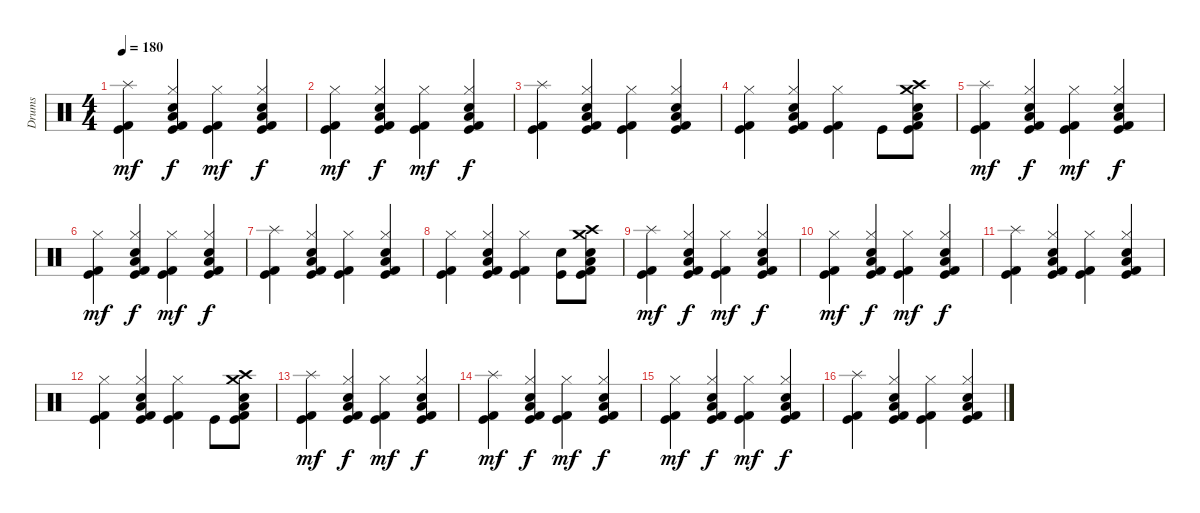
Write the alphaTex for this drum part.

\track ("Drums" "Drums") {instrument percussion}
\staff {score}
\articulation defaults
\ts (4 4)
\tempo 180
\clef neutral
\ks c
("Splash (hit)" "Kick (hit) 2" "Kick (hit)").4{dy mf} ("Hi-Hat (closed)" "Electric Snare (hit)" "Low Tom (hit)" "Kick (hit) 2" "Kick (hit)").4{dy f} ("Hi-Hat (closed)" "Kick (hit) 2" "Kick (hit)").4{dy mf} ("Hi-Hat (closed)" "Electric Snare (hit)" "Low Tom (hit)" "Kick (hit) 2" "Kick (hit)").4{dy f} |
("Hi-Hat (closed)" "Kick (hit) 2" "Kick (hit)").4{dy mf} ("Hi-Hat (closed)" "Electric Snare (hit)" "Low Tom (hit)" "Kick (hit) 2" "Kick (hit)").4{dy f} ("Hi-Hat (closed)" "Kick (hit) 2" "Kick (hit)").4{dy mf} ("Hi-Hat (closed)" "Electric Snare (hit)" "Low Tom (hit)" "Kick (hit) 2" "Kick (hit)").4{dy f} |
("Splash (hit)" "Kick (hit) 2" "Kick (hit)").4 ("Hi-Hat (closed)" "Electric Snare (hit)" "Low Tom (hit)" "Kick (hit) 2" "Kick (hit)").4 ("Hi-Hat (closed)" "Kick (hit) 2" "Kick (hit)").4 ("Hi-Hat (closed)" "Electric Snare (hit)" "Low Tom (hit)" "Kick (hit) 2" "Kick (hit)").4 |
("Hi-Hat (closed)" "Kick (hit) 2" "Kick (hit)").4 ("Hi-Hat (closed)" "Electric Snare (hit)" "Low Tom (hit)" "Kick (hit) 2" "Kick (hit)").4 ("Hi-Hat (closed)" "Kick (hit) 2" "Kick (hit)").4 "Kick (hit)".8 ("Crash high (hit)" "Electric Snare (hit)" "Low Tom (hit)" "Crash medium (hit)" "Kick (hit) 2" "Kick (hit)").8 |
("Splash (hit)" "Kick (hit) 2" "Kick (hit)").4{dy mf} ("Hi-Hat (closed)" "Electric Snare (hit)" "Low Tom (hit)" "Kick (hit) 2" "Kick (hit)").4{dy f} ("Hi-Hat (closed)" "Kick (hit) 2" "Kick (hit)").4{dy mf} ("Hi-Hat (closed)" "Electric Snare (hit)" "Low Tom (hit)" "Kick (hit) 2" "Kick (hit)").4{dy f} |
("Hi-Hat (closed)" "Kick (hit) 2" "Kick (hit)").4{dy mf} ("Hi-Hat (closed)" "Electric Snare (hit)" "Low Tom (hit)" "Kick (hit) 2" "Kick (hit)").4{dy f} ("Hi-Hat (closed)" "Kick (hit) 2" "Kick (hit)").4{dy mf} ("Hi-Hat (closed)" "Electric Snare (hit)" "Low Tom (hit)" "Kick (hit) 2" "Kick (hit)").4{dy f} |
("Splash (hit)" "Kick (hit) 2" "Kick (hit)").4 ("Hi-Hat (closed)" "Electric Snare (hit)" "Low Tom (hit)" "Kick (hit) 2" "Kick (hit)").4 ("Hi-Hat (closed)" "Kick (hit) 2" "Kick (hit)").4 ("Hi-Hat (closed)" "Electric Snare (hit)" "Low Tom (hit)" "Kick (hit) 2" "Kick (hit)").4 |
("Hi-Hat (closed)" "Kick (hit) 2" "Kick (hit)").4 ("Hi-Hat (closed)" "Electric Snare (hit)" "Low Tom (hit)" "Kick (hit) 2" "Kick (hit)").4 ("Hi-Hat (closed)" "Kick (hit) 2" "Kick (hit)").4 ("Electric Snare (hit)" "Kick (hit)").8 ("Crash high (hit)" "Electric Snare (hit)" "Low Tom (hit)" "Crash medium (hit)" "Kick (hit) 2" "Kick (hit)").8 |
("Splash (hit)" "Kick (hit) 2" "Kick (hit)").4{dy mf} ("Hi-Hat (closed)" "Electric Snare (hit)" "Low Tom (hit)" "Kick (hit) 2" "Kick (hit)").4{dy f} ("Hi-Hat (closed)" "Kick (hit) 2" "Kick (hit)").4{dy mf} ("Hi-Hat (closed)" "Electric Snare (hit)" "Low Tom (hit)" "Kick (hit) 2" "Kick (hit)").4{dy f} |
("Hi-Hat (closed)" "Kick (hit) 2" "Kick (hit)").4{dy mf} ("Hi-Hat (closed)" "Electric Snare (hit)" "Low Tom (hit)" "Kick (hit) 2" "Kick (hit)").4{dy f} ("Hi-Hat (closed)" "Kick (hit) 2" "Kick (hit)").4{dy mf} ("Hi-Hat (closed)" "Electric Snare (hit)" "Low Tom (hit)" "Kick (hit) 2" "Kick (hit)").4{dy f} |
("Splash (hit)" "Kick (hit) 2" "Kick (hit)").4 ("Hi-Hat (closed)" "Electric Snare (hit)" "Low Tom (hit)" "Kick (hit) 2" "Kick (hit)").4 ("Hi-Hat (closed)" "Kick (hit) 2" "Kick (hit)").4 ("Hi-Hat (closed)" "Electric Snare (hit)" "Low Tom (hit)" "Kick (hit) 2" "Kick (hit)").4 |
("Hi-Hat (closed)" "Kick (hit) 2" "Kick (hit)").4 ("Hi-Hat (closed)" "Electric Snare (hit)" "Low Tom (hit)" "Kick (hit) 2" "Kick (hit)").4 ("Hi-Hat (closed)" "Kick (hit) 2" "Kick (hit)").4 "Kick (hit)".8 ("Crash high (hit)" "Electric Snare (hit)" "Low Tom (hit)" "Crash medium (hit)" "Kick (hit) 2" "Kick (hit)").8 |
("Splash (hit)" "Kick (hit) 2" "Kick (hit)").4{dy mf} ("Hi-Hat (closed)" "Electric Snare (hit)" "Low Tom (hit)" "Kick (hit) 2" "Kick (hit)").4{dy f} ("Hi-Hat (closed)" "Kick (hit) 2" "Kick (hit)").4{dy mf} ("Hi-Hat (closed)" "Electric Snare (hit)" "Low Tom (hit)" "Kick (hit) 2" "Kick (hit)").4{dy f} |
("Splash (hit)" "Kick (hit) 2" "Kick (hit)").4{dy mf} ("Hi-Hat (closed)" "Electric Snare (hit)" "Low Tom (hit)" "Kick (hit) 2" "Kick (hit)").4{dy f} ("Hi-Hat (closed)" "Kick (hit) 2" "Kick (hit)").4{dy mf} ("Hi-Hat (closed)" "Electric Snare (hit)" "Low Tom (hit)" "Kick (hit) 2" "Kick (hit)").4{dy f} |
("Hi-Hat (closed)" "Kick (hit) 2" "Kick (hit)").4{dy mf} ("Hi-Hat (closed)" "Electric Snare (hit)" "Low Tom (hit)" "Kick (hit) 2" "Kick (hit)").4{dy f} ("Hi-Hat (closed)" "Kick (hit) 2" "Kick (hit)").4{dy mf} ("Hi-Hat (closed)" "Electric Snare (hit)" "Low Tom (hit)" "Kick (hit) 2" "Kick (hit)").4{dy f} |
("Splash (hit)" "Kick (hit) 2" "Kick (hit)").4 ("Hi-Hat (closed)" "Electric Snare (hit)" "Low Tom (hit)" "Kick (hit) 2" "Kick (hit)").4 ("Hi-Hat (closed)" "Kick (hit) 2" "Kick (hit)").4 ("Hi-Hat (closed)" "Electric Snare (hit)" "Low Tom (hit)" "Kick (hit) 2" "Kick (hit)").4
